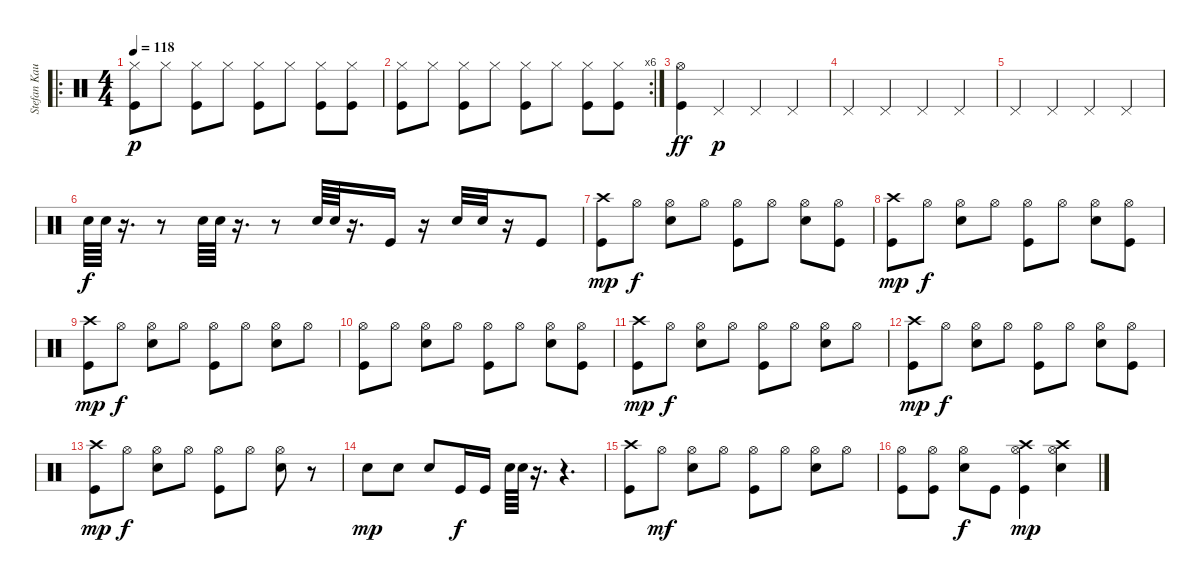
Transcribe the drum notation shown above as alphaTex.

\track ("Stefan Kaufmann" "Stefan Kau") {instrument percussion}
\staff {score}
\articulation defaults
\ro
\ts (4 4)
\tempo 118
\clef neutral
\ks c
("Hi-Hat (closed)" "Kick (hit)").8{dy p} "Hi-Hat (closed)".8 ("Hi-Hat (closed)" "Kick (hit)").8 "Hi-Hat (closed)".8 ("Hi-Hat (closed)" "Kick (hit)").8 "Hi-Hat (closed)".8 ("Hi-Hat (closed)" "Kick (hit)").8 ("Hi-Hat (closed)" "Kick (hit)").8 |
\rc 6
("Hi-Hat (closed)" "Kick (hit)").8 "Hi-Hat (closed)".8 ("Hi-Hat (closed)" "Kick (hit)").8 "Hi-Hat (closed)".8 ("Hi-Hat (closed)" "Kick (hit)").8 "Hi-Hat (closed)".8 ("Hi-Hat (closed)" "Kick (hit)").8 ("Hi-Hat (closed)" "Kick (hit)").8 |
("Hi-Hat (open)" "Kick (hit)").4{dy ff} "Pedal Hi-Hat (hit)".4{dy p} "Pedal Hi-Hat (hit)".4 "Pedal Hi-Hat (hit)".4 |
"Pedal Hi-Hat (hit)".4 "Pedal Hi-Hat (hit)".4 "Pedal Hi-Hat (hit)".4 "Pedal Hi-Hat (hit)".4 |
"Pedal Hi-Hat (hit)".4 "Pedal Hi-Hat (hit)".4 "Pedal Hi-Hat (hit)".4 "Pedal Hi-Hat (hit)".4 |
"Snare (hit) 2".64{dy f} "Snare (hit) 2".64 r.16{d} r.8 "Snare (hit) 2".64 "Snare (hit) 2".64 r.16{d} r.8 "Snare (hit) 2".64 "Snare (hit) 2".64 r.16{d} "Kick (hit)".16 r.16 "Snare (hit) 2".32 "Snare (hit) 2".32 r.16 "Kick (hit)".8 |
("Crash high (hit)" "Kick (hit)").8{dy mp} "Hi-Hat (open)".8{dy f} ("Hi-Hat (open)" "Snare (hit) 2").8 "Hi-Hat (open)".8 ("Hi-Hat (open)" "Kick (hit)").8 "Hi-Hat (open)".8 ("Hi-Hat (open)" "Snare (hit) 2").8 ("Hi-Hat (open)" "Kick (hit)").8 |
("Crash high (hit)" "Kick (hit)").8{dy mp} "Hi-Hat (open)".8{dy f} ("Hi-Hat (open)" "Snare (hit) 2").8 "Hi-Hat (open)".8 ("Hi-Hat (open)" "Kick (hit)").8 "Hi-Hat (open)".8 ("Hi-Hat (open)" "Snare (hit) 2").8 ("Hi-Hat (open)" "Kick (hit)").8 |
("Crash high (hit)" "Kick (hit)").8{dy mp} "Hi-Hat (open)".8{dy f} ("Hi-Hat (open)" "Snare (hit) 2").8 "Hi-Hat (open)".8 ("Hi-Hat (open)" "Kick (hit)").8 "Hi-Hat (open)".8 ("Hi-Hat (open)" "Snare (hit) 2").8 "Hi-Hat (open)".8 |
("Hi-Hat (open)" "Kick (hit)").8 "Hi-Hat (open)".8 ("Hi-Hat (open)" "Snare (hit) 2").8 "Hi-Hat (open)".8 ("Hi-Hat (open)" "Kick (hit)").8 "Hi-Hat (open)".8 ("Hi-Hat (open)" "Snare (hit) 2").8 ("Hi-Hat (open)" "Kick (hit)").8 |
("Crash high (hit)" "Kick (hit)").8{dy mp} "Hi-Hat (open)".8{dy f} ("Hi-Hat (open)" "Snare (hit) 2").8 "Hi-Hat (open)".8 ("Hi-Hat (open)" "Kick (hit)").8 "Hi-Hat (open)".8 ("Hi-Hat (open)" "Snare (hit) 2").8 "Hi-Hat (open)".8 |
("Crash high (hit)" "Kick (hit)").8{dy mp} "Hi-Hat (open)".8{dy f} ("Hi-Hat (open)" "Snare (hit) 2").8 "Hi-Hat (open)".8 ("Hi-Hat (open)" "Kick (hit)").8 "Hi-Hat (open)".8 ("Hi-Hat (open)" "Snare (hit) 2").8 ("Hi-Hat (open)" "Kick (hit)").8 |
("Crash high (hit)" "Kick (hit)").8{dy mp} "Hi-Hat (open)".8{dy f} ("Hi-Hat (open)" "Snare (hit) 2").8 "Hi-Hat (open)".8 ("Hi-Hat (open)" "Kick (hit)").8 "Hi-Hat (open)".8 ("Hi-Hat (open)" "Snare (hit) 2").8 r.8 |
"Snare (hit) 2".8{dy mp} "Snare (hit) 2".8 "Snare (hit) 2".8 "Kick (hit)".16{dy f} "Kick (hit)".16 "Snare (hit) 2".64 "Snare (hit) 2".64 r.16{d} r.4{d} |
("Crash high (hit)" "Kick (hit)").8 "Hi-Hat (open)".8{dy mf} ("Hi-Hat (open)" "Snare (hit) 2").8 "Hi-Hat (open)".8 ("Hi-Hat (open)" "Kick (hit)").8 "Hi-Hat (open)".8 ("Hi-Hat (open)" "Snare (hit) 2").8 "Hi-Hat (open)".8 |
("Hi-Hat (open)" "Kick (hit)").8 ("Hi-Hat (open)" "Kick (hit)").8 ("Hi-Hat (open)" "Snare (hit) 2").8{dy f} "Kick (hit)".8 ("Hi-Hat (open)" "Kick (hit)" "Crash high (hit)").4{dy mp} ("Hi-Hat (open)" "Snare (hit) 2" "Crash high (hit)").4
